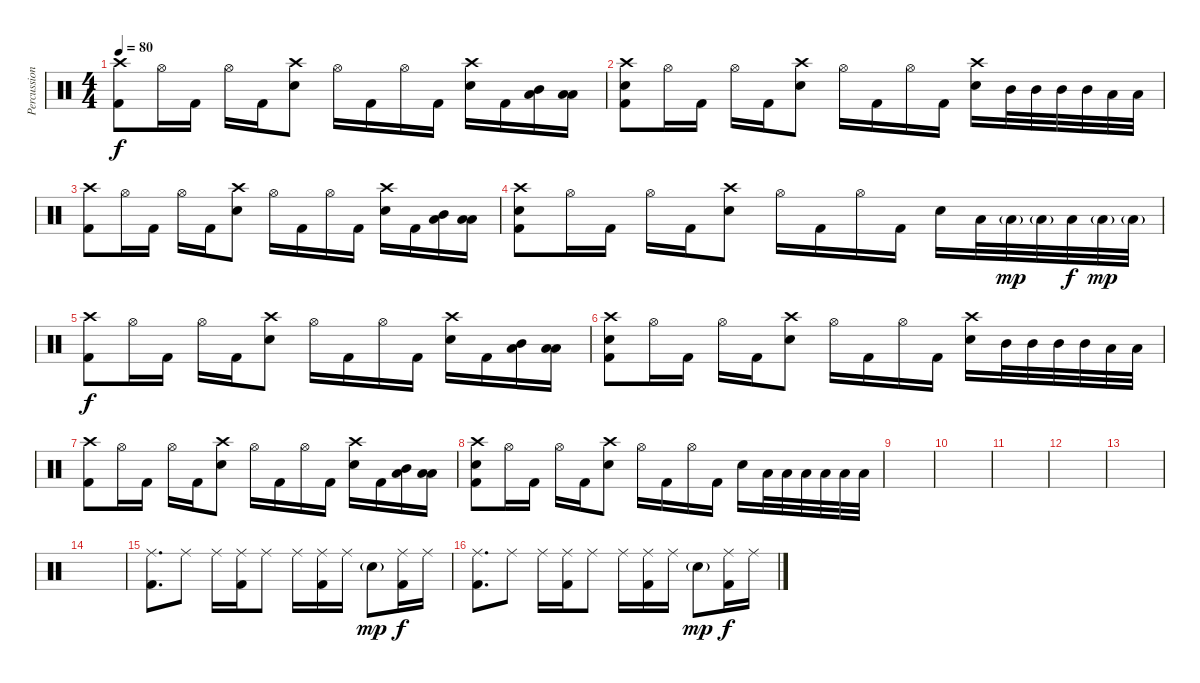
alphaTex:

\track ("Percussion" "Percussion") {instrument percussion}
\staff {score}
\articulation defaults
\ts (4 4)
\tempo 80
\clef neutral
\ks c
("Crash high (hit)" "Kick (hit) 2").8{dy f} "Hi-Hat (open)".16 "Kick (hit) 2".16 "Hi-Hat (open)".16 "Kick (hit) 2".16 ("Crash high (hit)" "Snare (hit) 2").8 "Hi-Hat (open)".16 "Kick (hit) 2".16 "Hi-Hat (open)".16 "Kick (hit) 2".16 ("Crash high (hit)" "Snare (hit) 2").16 "Kick (hit) 2".16 ("Mid Tom (hit)" "Low Tom (hit)").16 ("Low Floor Tom (hit)" "Low Floor Tom (hit)").16 |
("Crash high (hit)" "Snare (hit) 2" "Kick (hit) 2").8 "Hi-Hat (open)".16 "Kick (hit) 2".16 "Hi-Hat (open)".16 "Kick (hit) 2".16 ("Crash high (hit)" "Snare (hit) 2").8 "Hi-Hat (open)".16 "Kick (hit) 2".16 "Hi-Hat (open)".16 "Kick (hit) 2".16 ("Crash high (hit)" "Snare (hit) 2").16 "Mid Tom (hit)".32 "Mid Tom (hit)".32 "Mid Tom (hit)".32 "Mid Tom (hit)".32 "Low Tom (hit)".32 "Low Tom (hit)".32 |
("Crash high (hit)" "Kick (hit) 2").8 "Hi-Hat (open)".16 "Kick (hit) 2".16 "Hi-Hat (open)".16 "Kick (hit) 2".16 ("Crash high (hit)" "Snare (hit) 2").8 "Hi-Hat (open)".16 "Kick (hit) 2".16 "Hi-Hat (open)".16 "Kick (hit) 2".16 ("Crash high (hit)" "Snare (hit) 2").16 "Kick (hit) 2".16 ("Mid Tom (hit)" "Low Tom (hit)").16 ("Low Floor Tom (hit)" "Low Floor Tom (hit)").16 |
("Crash high (hit)" "Snare (hit) 2" "Kick (hit) 2").8 "Hi-Hat (open)".16 "Kick (hit) 2".16 "Hi-Hat (open)".16 "Kick (hit) 2".16 ("Crash high (hit)" "Snare (hit) 2").8 "Hi-Hat (open)".16 "Kick (hit) 2".16 "Hi-Hat (open)".16 "Kick (hit) 2".16 "Snare (hit) 2".16 "Low Floor Tom (hit)".32 "Low Floor Tom (hit)"{g}.32{dy mp} "Low Floor Tom (hit)"{g}.32 "Low Floor Tom (hit)".32{dy f} "Low Floor Tom (hit)"{g}.32{dy mp} "Low Floor Tom (hit)"{g}.32 |
("Crash high (hit)" "Kick (hit) 2").8{dy f} "Hi-Hat (open)".16 "Kick (hit) 2".16 "Hi-Hat (open)".16 "Kick (hit) 2".16 ("Crash high (hit)" "Snare (hit) 2").8 "Hi-Hat (open)".16 "Kick (hit) 2".16 "Hi-Hat (open)".16 "Kick (hit) 2".16 ("Crash high (hit)" "Snare (hit) 2").16 "Kick (hit) 2".16 ("Mid Tom (hit)" "Low Tom (hit)").16 ("Low Floor Tom (hit)" "Low Floor Tom (hit)").16 |
("Crash high (hit)" "Snare (hit) 2" "Kick (hit) 2").8 "Hi-Hat (open)".16 "Kick (hit) 2".16 "Hi-Hat (open)".16 "Kick (hit) 2".16 ("Crash high (hit)" "Snare (hit) 2").8 "Hi-Hat (open)".16 "Kick (hit) 2".16 "Hi-Hat (open)".16 "Kick (hit) 2".16 ("Crash high (hit)" "Snare (hit) 2").16 "Mid Tom (hit)".32 "Mid Tom (hit)".32 "Mid Tom (hit)".32 "Mid Tom (hit)".32 "Low Tom (hit)".32 "Low Tom (hit)".32 |
("Crash high (hit)" "Kick (hit) 2").8 "Hi-Hat (open)".16 "Kick (hit) 2".16 "Hi-Hat (open)".16 "Kick (hit) 2".16 ("Crash high (hit)" "Snare (hit) 2").8 "Hi-Hat (open)".16 "Kick (hit) 2".16 "Hi-Hat (open)".16 "Kick (hit) 2".16 ("Crash high (hit)" "Snare (hit) 2").16 "Kick (hit) 2".16 ("Mid Tom (hit)" "Low Tom (hit)").16 ("Low Floor Tom (hit)" "Low Floor Tom (hit)").16 |
("Crash high (hit)" "Snare (hit) 2" "Kick (hit) 2").8 "Hi-Hat (open)".16 "Kick (hit) 2".16 "Hi-Hat (open)".16 "Kick (hit) 2".16 ("Crash high (hit)" "Snare (hit) 2").8 "Hi-Hat (open)".16 "Kick (hit) 2".16 "Hi-Hat (open)".16 "Kick (hit) 2".16 "Snare (hit) 2".16 "Low Floor Tom (hit)".32 "Low Floor Tom (hit)".32 "Low Floor Tom (hit)".32 "Low Floor Tom (hit)".32 "Low Floor Tom (hit)".32 "Low Floor Tom (hit)".32 |
|
|
|
|
|
|
("Ride (middle)" "Kick (hit) 2").8{d} "Ride (middle)".8 "Ride (middle)".16 ("Ride (middle)" "Kick (hit) 2").16 "Ride (middle)".8 "Ride (middle)".16 ("Ride (middle)" "Kick (hit) 2").16 "Ride (middle)".16 "Snare (hit) 2"{g}.8{dy mp} ("Ride (middle)" "Kick (hit) 2").16{dy f} "Ride (middle)".16 |
("Ride (middle)" "Kick (hit) 2").8{d} "Ride (middle)".8 "Ride (middle)".16 ("Ride (middle)" "Kick (hit) 2").16 "Ride (middle)".8 "Ride (middle)".16 ("Ride (middle)" "Kick (hit) 2").16 "Ride (middle)".16 "Snare (hit) 2"{g}.8{dy mp} ("Ride (middle)" "Kick (hit) 2").16{dy f} "Ride (middle)".16
